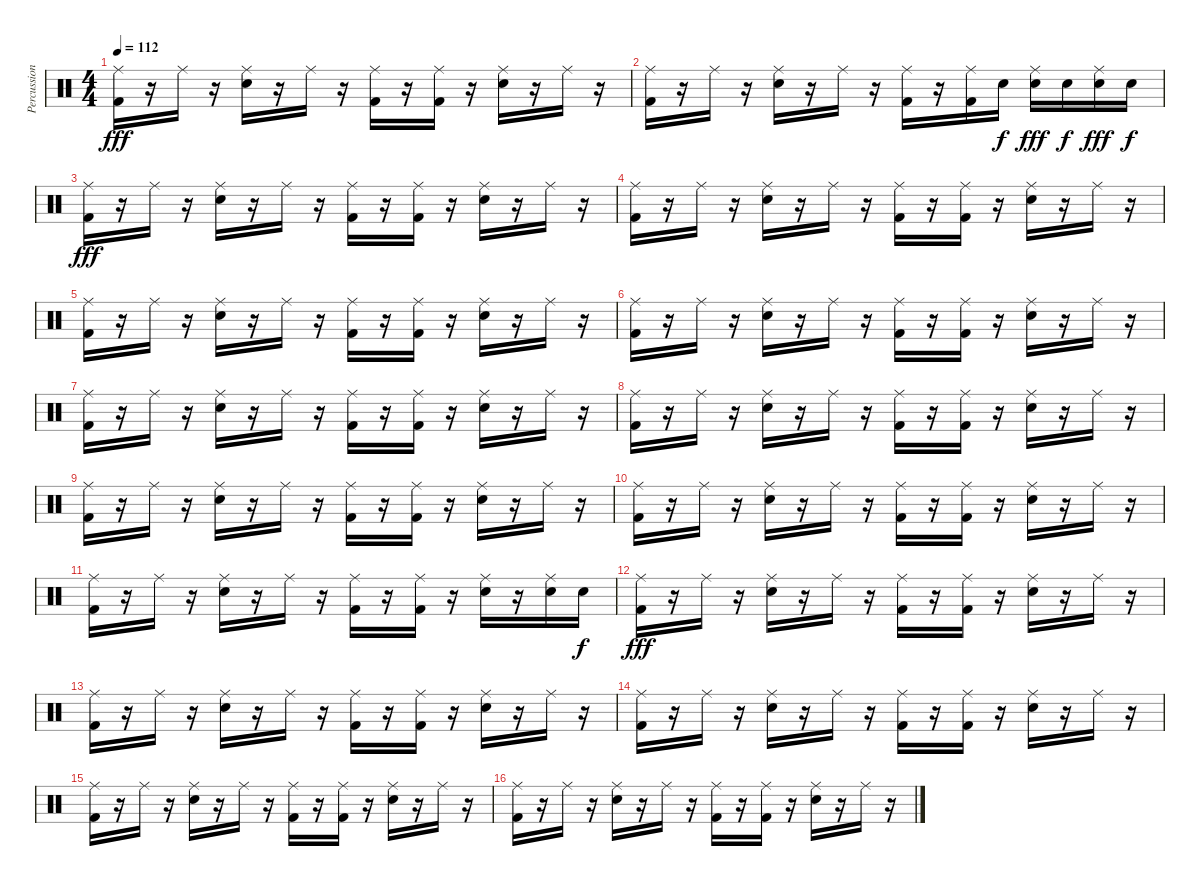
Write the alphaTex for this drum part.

\track ("Percussions" "Percussion") {instrument percussion}
\staff {score}
\articulation defaults
\ts (4 4)
\tempo 112
\clef neutral
\ks c
("Ride (middle)" "Kick (hit) 2").16{dy fff} r.16 "Ride (middle)".16 r.16 ("Ride (middle)" "Electric Snare (hit)").16 r.16 "Ride (middle)".16 r.16 ("Ride (middle)" "Kick (hit) 2").16 r.16 ("Ride (middle)" "Kick (hit) 2").16 r.16 ("Ride (middle)" "Electric Snare (hit)").16 r.16 "Ride (middle)".16 r.16 |
("Ride (middle)" "Kick (hit) 2").16 r.16 "Ride (middle)".16 r.16 ("Ride (middle)" "Electric Snare (hit)").16 r.16 "Ride (middle)".16 r.16 ("Ride (middle)" "Kick (hit) 2").16 r.16 ("Ride (middle)" "Kick (hit) 2").16 "Electric Snare (hit)".16{dy f} ("Ride (middle)" "Electric Snare (hit)").16{dy fff} "Electric Snare (hit)".16{dy f} ("Ride (middle)" "Electric Snare (hit)").16{dy fff} "Electric Snare (hit)".16{dy f} |
("Ride (middle)" "Kick (hit) 2").16{dy fff} r.16 "Ride (middle)".16 r.16 ("Ride (middle)" "Electric Snare (hit)").16 r.16 "Ride (middle)".16 r.16 ("Ride (middle)" "Kick (hit) 2").16 r.16 ("Ride (middle)" "Kick (hit) 2").16 r.16 ("Ride (middle)" "Electric Snare (hit)").16 r.16 "Ride (middle)".16 r.16 |
("Ride (middle)" "Kick (hit) 2").16 r.16 "Ride (middle)".16 r.16 ("Ride (middle)" "Electric Snare (hit)").16 r.16 "Ride (middle)".16 r.16 ("Ride (middle)" "Kick (hit) 2").16 r.16 ("Ride (middle)" "Kick (hit) 2").16 r.16 ("Ride (middle)" "Electric Snare (hit)").16 r.16 "Ride (middle)".16 r.16 |
("Ride (middle)" "Kick (hit) 2").16 r.16 "Ride (middle)".16 r.16 ("Ride (middle)" "Electric Snare (hit)").16 r.16 "Ride (middle)".16 r.16 ("Ride (middle)" "Kick (hit) 2").16 r.16 ("Ride (middle)" "Kick (hit) 2").16 r.16 ("Ride (middle)" "Electric Snare (hit)").16 r.16 "Ride (middle)".16 r.16 |
("Ride (middle)" "Kick (hit) 2").16 r.16 "Ride (middle)".16 r.16 ("Ride (middle)" "Electric Snare (hit)").16 r.16 "Ride (middle)".16 r.16 ("Ride (middle)" "Kick (hit) 2").16 r.16 ("Ride (middle)" "Kick (hit) 2").16 r.16 ("Ride (middle)" "Electric Snare (hit)").16 r.16 "Ride (middle)".16 r.16 |
("Ride (middle)" "Kick (hit) 2").16 r.16 "Ride (middle)".16 r.16 ("Ride (middle)" "Electric Snare (hit)").16 r.16 "Ride (middle)".16 r.16 ("Ride (middle)" "Kick (hit) 2").16 r.16 ("Ride (middle)" "Kick (hit) 2").16 r.16 ("Ride (middle)" "Electric Snare (hit)").16 r.16 "Ride (middle)".16 r.16 |
("Ride (middle)" "Kick (hit) 2").16 r.16 "Ride (middle)".16 r.16 ("Ride (middle)" "Electric Snare (hit)").16 r.16 "Ride (middle)".16 r.16 ("Ride (middle)" "Kick (hit) 2").16 r.16 ("Ride (middle)" "Kick (hit) 2").16 r.16 ("Ride (middle)" "Electric Snare (hit)").16 r.16 "Ride (middle)".16 r.16 |
("Ride (middle)" "Kick (hit) 2").16 r.16 "Ride (middle)".16 r.16 ("Ride (middle)" "Electric Snare (hit)").16 r.16 "Ride (middle)".16 r.16 ("Ride (middle)" "Kick (hit) 2").16 r.16 ("Ride (middle)" "Kick (hit) 2").16 r.16 ("Ride (middle)" "Electric Snare (hit)").16 r.16 "Ride (middle)".16 r.16 |
("Ride (middle)" "Kick (hit) 2").16 r.16 "Ride (middle)".16 r.16 ("Ride (middle)" "Electric Snare (hit)").16 r.16 "Ride (middle)".16 r.16 ("Ride (middle)" "Kick (hit) 2").16 r.16 ("Ride (middle)" "Kick (hit) 2").16 r.16 ("Ride (middle)" "Electric Snare (hit)").16 r.16 "Ride (middle)".16 r.16 |
("Ride (middle)" "Kick (hit) 2").16 r.16 "Ride (middle)".16 r.16 ("Ride (middle)" "Electric Snare (hit)").16 r.16 "Ride (middle)".16 r.16 ("Ride (middle)" "Kick (hit) 2").16 r.16 ("Ride (middle)" "Kick (hit) 2").16 r.16 ("Ride (middle)" "Electric Snare (hit)").16 r.16 ("Ride (middle)" "Electric Snare (hit)").16 "Electric Snare (hit)".16{dy f} |
("Ride (middle)" "Kick (hit) 2").16{dy fff} r.16 "Ride (middle)".16 r.16 ("Ride (middle)" "Electric Snare (hit)").16 r.16 "Ride (middle)".16 r.16 ("Ride (middle)" "Kick (hit) 2").16 r.16 ("Ride (middle)" "Kick (hit) 2").16 r.16 ("Ride (middle)" "Electric Snare (hit)").16 r.16 "Ride (middle)".16 r.16 |
("Ride (middle)" "Kick (hit) 2").16 r.16 "Ride (middle)".16 r.16 ("Ride (middle)" "Electric Snare (hit)").16 r.16 "Ride (middle)".16 r.16 ("Ride (middle)" "Kick (hit) 2").16 r.16 ("Ride (middle)" "Kick (hit) 2").16 r.16 ("Ride (middle)" "Electric Snare (hit)").16 r.16 "Ride (middle)".16 r.16 |
("Ride (middle)" "Kick (hit) 2").16 r.16 "Ride (middle)".16 r.16 ("Ride (middle)" "Electric Snare (hit)").16 r.16 "Ride (middle)".16 r.16 ("Ride (middle)" "Kick (hit) 2").16 r.16 ("Ride (middle)" "Kick (hit) 2").16 r.16 ("Ride (middle)" "Electric Snare (hit)").16 r.16 "Ride (middle)".16 r.16 |
("Ride (middle)" "Kick (hit) 2").16 r.16 "Ride (middle)".16 r.16 ("Ride (middle)" "Electric Snare (hit)").16 r.16 "Ride (middle)".16 r.16 ("Ride (middle)" "Kick (hit) 2").16 r.16 ("Ride (middle)" "Kick (hit) 2").16 r.16 ("Ride (middle)" "Electric Snare (hit)").16 r.16 "Ride (middle)".16 r.16 |
("Ride (middle)" "Kick (hit) 2").16 r.16 "Ride (middle)".16 r.16 ("Ride (middle)" "Electric Snare (hit)").16 r.16 "Ride (middle)".16 r.16 ("Ride (middle)" "Kick (hit) 2").16 r.16 ("Ride (middle)" "Kick (hit) 2").16 r.16 ("Ride (middle)" "Electric Snare (hit)").16 r.16 "Ride (middle)".16 r.16
